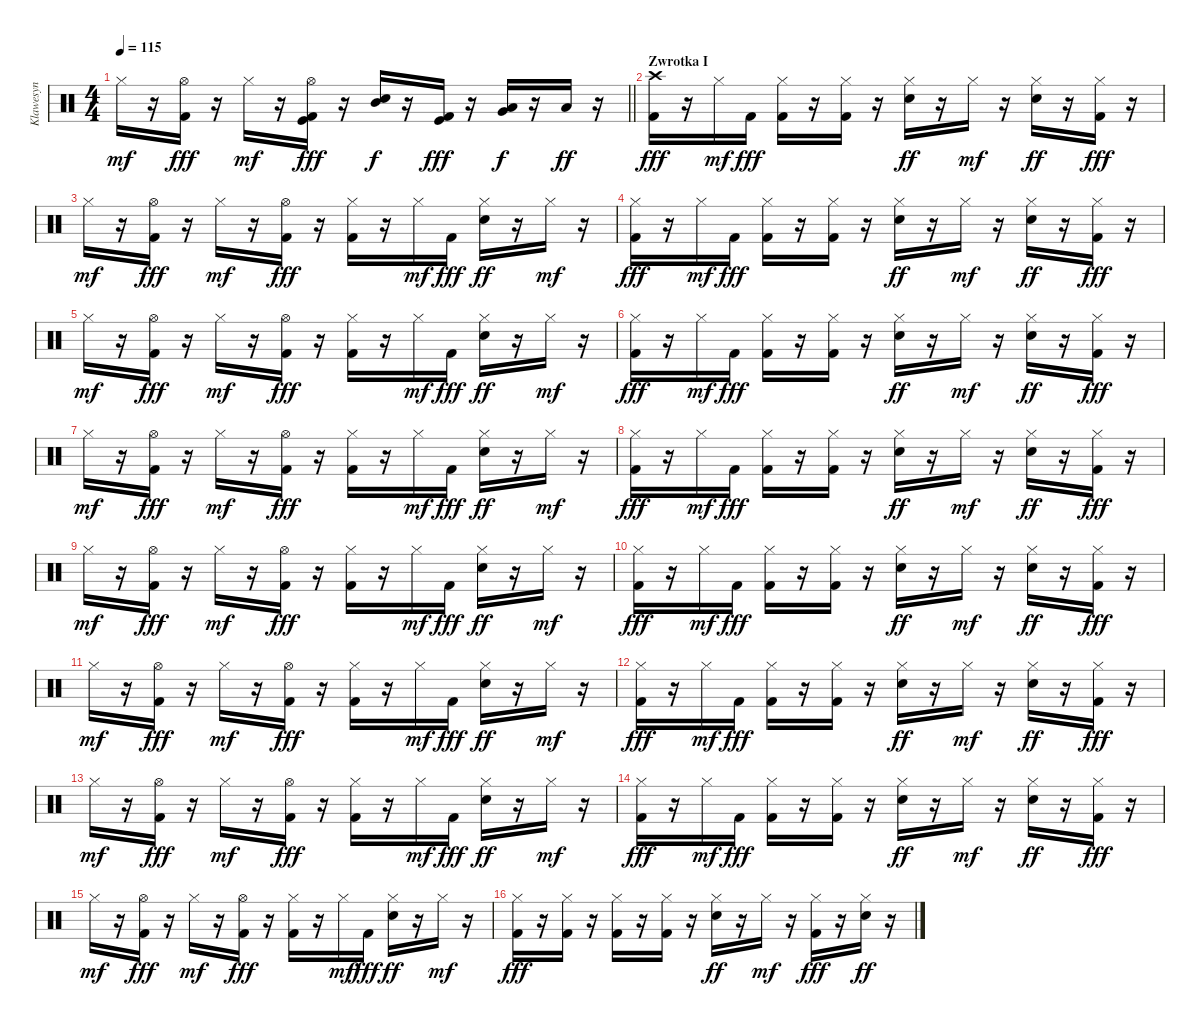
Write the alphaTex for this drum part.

\track ("Klawesyn" "Klawesyn") {instrument percussion}
\staff {score}
\articulation defaults
\ts (4 4)
\tempo 115
\clef neutral
\barLineRight lightlight
\ks c "Hi-Hat (closed)".16{dy mf}
r.16 ("Hi-Hat (open)" "Kick (hit) 2").16{dy fff} r.16 "Hi-Hat (closed)".16{dy mf} r.16 ("Hi-Hat (open)" "Kick (hit)" "Kick (hit) 2").16{dy fff} r.16 ("Electric Snare (hit)" "Mid Tom (hit)").16{dy f} r.16 ("Kick (hit)" "Kick (hit) 2").16{dy fff} r.16 ("Very Low Tom (hit)" "Low Tom (hit)").16{dy f} r.16 "Low Floor Tom (hit)".16{dy ff} r.16 |
\section ("" "Zwrotka I")
("Crash high (hit)" "Kick (hit) 2").16{dy fff} r.16 "Hi-Hat (closed)".16{dy mf} "Kick (hit) 2".16{dy fff} ("Hi-Hat (closed)" "Kick (hit) 2").16 r.16 ("Hi-Hat (closed)" "Kick (hit) 2").16 r.16 ("Hi-Hat (closed)" "Electric Snare (hit)").16{dy ff} r.16 "Hi-Hat (closed)".16{dy mf} r.16 ("Hi-Hat (closed)" "Electric Snare (hit)").16{dy ff} r.16 ("Hi-Hat (closed)" "Kick (hit) 2").16{dy fff} r.16 |
"Hi-Hat (closed)".16{dy mf} r.16 ("Hi-Hat (open)" "Kick (hit) 2").16{dy fff} r.16 "Hi-Hat (closed)".16{dy mf} r.16 ("Hi-Hat (open)" "Kick (hit) 2").16{dy fff} r.16 ("Hi-Hat (closed)" "Kick (hit) 2").16 r.16 "Hi-Hat (closed)".16{dy mf} "Kick (hit) 2".16{dy fff} ("Hi-Hat (closed)" "Electric Snare (hit)").16{dy ff} r.16 "Hi-Hat (closed)".16{dy mf} r.16 |
("Hi-Hat (closed)" "Kick (hit) 2").16{dy fff} r.16 "Hi-Hat (closed)".16{dy mf} "Kick (hit) 2".16{dy fff} ("Hi-Hat (closed)" "Kick (hit) 2").16 r.16 ("Hi-Hat (closed)" "Kick (hit) 2").16 r.16 ("Hi-Hat (closed)" "Electric Snare (hit)").16{dy ff} r.16 "Hi-Hat (closed)".16{dy mf} r.16 ("Hi-Hat (closed)" "Electric Snare (hit)").16{dy ff} r.16 ("Hi-Hat (closed)" "Kick (hit) 2").16{dy fff} r.16 |
"Hi-Hat (closed)".16{dy mf} r.16 ("Hi-Hat (open)" "Kick (hit) 2").16{dy fff} r.16 "Hi-Hat (closed)".16{dy mf} r.16 ("Hi-Hat (open)" "Kick (hit) 2").16{dy fff} r.16 ("Hi-Hat (closed)" "Kick (hit) 2").16 r.16 "Hi-Hat (closed)".16{dy mf} "Kick (hit) 2".16{dy fff} ("Hi-Hat (closed)" "Electric Snare (hit)").16{dy ff} r.16 "Hi-Hat (closed)".16{dy mf} r.16 |
("Hi-Hat (closed)" "Kick (hit) 2").16{dy fff} r.16 "Hi-Hat (closed)".16{dy mf} "Kick (hit) 2".16{dy fff} ("Hi-Hat (closed)" "Kick (hit) 2").16 r.16 ("Hi-Hat (closed)" "Kick (hit) 2").16 r.16 ("Hi-Hat (closed)" "Electric Snare (hit)").16{dy ff} r.16 "Hi-Hat (closed)".16{dy mf} r.16 ("Hi-Hat (closed)" "Electric Snare (hit)").16{dy ff} r.16 ("Hi-Hat (closed)" "Kick (hit) 2").16{dy fff} r.16 |
"Hi-Hat (closed)".16{dy mf} r.16 ("Hi-Hat (open)" "Kick (hit) 2").16{dy fff} r.16 "Hi-Hat (closed)".16{dy mf} r.16 ("Hi-Hat (open)" "Kick (hit) 2").16{dy fff} r.16 ("Hi-Hat (closed)" "Kick (hit) 2").16 r.16 "Hi-Hat (closed)".16{dy mf} "Kick (hit) 2".16{dy fff} ("Hi-Hat (closed)" "Electric Snare (hit)").16{dy ff} r.16 "Hi-Hat (closed)".16{dy mf} r.16 |
("Hi-Hat (closed)" "Kick (hit) 2").16{dy fff} r.16 "Hi-Hat (closed)".16{dy mf} "Kick (hit) 2".16{dy fff} ("Hi-Hat (closed)" "Kick (hit) 2").16 r.16 ("Hi-Hat (closed)" "Kick (hit) 2").16 r.16 ("Hi-Hat (closed)" "Electric Snare (hit)").16{dy ff} r.16 "Hi-Hat (closed)".16{dy mf} r.16 ("Hi-Hat (closed)" "Electric Snare (hit)").16{dy ff} r.16 ("Hi-Hat (closed)" "Kick (hit) 2").16{dy fff} r.16 |
"Hi-Hat (closed)".16{dy mf} r.16 ("Hi-Hat (open)" "Kick (hit) 2").16{dy fff} r.16 "Hi-Hat (closed)".16{dy mf} r.16 ("Hi-Hat (open)" "Kick (hit) 2").16{dy fff} r.16 ("Hi-Hat (closed)" "Kick (hit) 2").16 r.16 "Hi-Hat (closed)".16{dy mf} "Kick (hit) 2".16{dy fff} ("Hi-Hat (closed)" "Electric Snare (hit)").16{dy ff} r.16 "Hi-Hat (closed)".16{dy mf} r.16 |
("Hi-Hat (closed)" "Kick (hit) 2").16{dy fff} r.16 "Hi-Hat (closed)".16{dy mf} "Kick (hit) 2".16{dy fff} ("Hi-Hat (closed)" "Kick (hit) 2").16 r.16 ("Hi-Hat (closed)" "Kick (hit) 2").16 r.16 ("Hi-Hat (closed)" "Electric Snare (hit)").16{dy ff} r.16 "Hi-Hat (closed)".16{dy mf} r.16 ("Hi-Hat (closed)" "Electric Snare (hit)").16{dy ff} r.16 ("Hi-Hat (closed)" "Kick (hit) 2").16{dy fff} r.16 |
"Hi-Hat (closed)".16{dy mf} r.16 ("Hi-Hat (open)" "Kick (hit) 2").16{dy fff} r.16 "Hi-Hat (closed)".16{dy mf} r.16 ("Hi-Hat (open)" "Kick (hit) 2").16{dy fff} r.16 ("Hi-Hat (closed)" "Kick (hit) 2").16 r.16 "Hi-Hat (closed)".16{dy mf} "Kick (hit) 2".16{dy fff} ("Hi-Hat (closed)" "Electric Snare (hit)").16{dy ff} r.16 "Hi-Hat (closed)".16{dy mf} r.16 |
("Hi-Hat (closed)" "Kick (hit) 2").16{dy fff} r.16 "Hi-Hat (closed)".16{dy mf} "Kick (hit) 2".16{dy fff} ("Hi-Hat (closed)" "Kick (hit) 2").16 r.16 ("Hi-Hat (closed)" "Kick (hit) 2").16 r.16 ("Hi-Hat (closed)" "Electric Snare (hit)").16{dy ff} r.16 "Hi-Hat (closed)".16{dy mf} r.16 ("Hi-Hat (closed)" "Electric Snare (hit)").16{dy ff} r.16 ("Hi-Hat (closed)" "Kick (hit) 2").16{dy fff} r.16 |
"Hi-Hat (closed)".16{dy mf} r.16 ("Hi-Hat (open)" "Kick (hit) 2").16{dy fff} r.16 "Hi-Hat (closed)".16{dy mf} r.16 ("Hi-Hat (open)" "Kick (hit) 2").16{dy fff} r.16 ("Hi-Hat (closed)" "Kick (hit) 2").16 r.16 "Hi-Hat (closed)".16{dy mf} "Kick (hit) 2".16{dy fff} ("Hi-Hat (closed)" "Electric Snare (hit)").16{dy ff} r.16 "Hi-Hat (closed)".16{dy mf} r.16 |
("Hi-Hat (closed)" "Kick (hit) 2").16{dy fff} r.16 "Hi-Hat (closed)".16{dy mf} "Kick (hit) 2".16{dy fff} ("Hi-Hat (closed)" "Kick (hit) 2").16 r.16 ("Hi-Hat (closed)" "Kick (hit) 2").16 r.16 ("Hi-Hat (closed)" "Electric Snare (hit)").16{dy ff} r.16 "Hi-Hat (closed)".16{dy mf} r.16 ("Hi-Hat (closed)" "Electric Snare (hit)").16{dy ff} r.16 ("Hi-Hat (closed)" "Kick (hit) 2").16{dy fff} r.16 |
"Hi-Hat (closed)".16{dy mf} r.16 ("Hi-Hat (open)" "Kick (hit) 2").16{dy fff} r.16 "Hi-Hat (closed)".16{dy mf} r.16 ("Hi-Hat (open)" "Kick (hit) 2").16{dy fff} r.16 ("Hi-Hat (closed)" "Kick (hit) 2").16 r.16 "Hi-Hat (closed)".16{dy mf} "Kick (hit) 2".16{dy fff} ("Hi-Hat (closed)" "Electric Snare (hit)").16{dy ff} r.16 "Hi-Hat (closed)".16{dy mf} r.16 |
("Hi-Hat (closed)" "Kick (hit) 2").16{dy fff} r.16 ("Hi-Hat (closed)" "Kick (hit) 2").16 r.16 ("Hi-Hat (closed)" "Kick (hit) 2").16 r.16 ("Hi-Hat (closed)" "Kick (hit) 2").16 r.16 ("Hi-Hat (closed)" "Electric Snare (hit)").16{dy ff} r.16 "Hi-Hat (closed)".16{dy mf} r.16 ("Hi-Hat (closed)" "Kick (hit) 2").16{dy fff} r.16 ("Hi-Hat (closed)" "Electric Snare (hit)").16{dy ff} r.16
